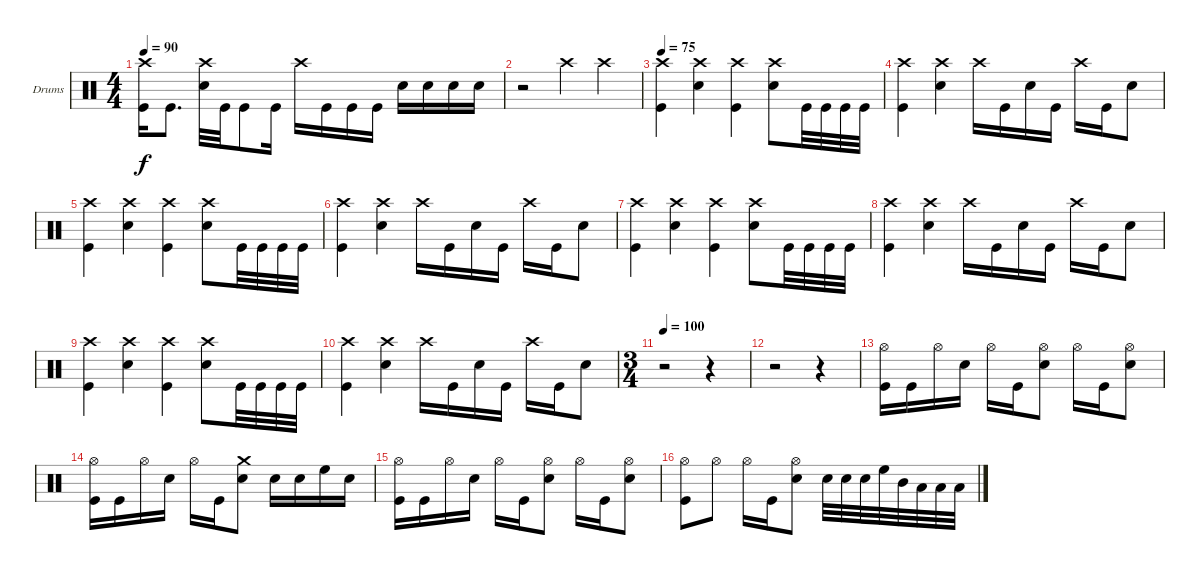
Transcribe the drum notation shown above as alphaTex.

\bracketExtendMode groupsimilarinstruments
\firstSystemTrackNameOrientation horizontal
\otherSystemsTrackNameOrientation horizontal
\track ("Emile Bardou" "Drums") {instrument percussion}
\staff {score}
\articulation defaults
\ts (4 4)
\tempo 90
\clef neutral
\scale
0.333333
\ks c
("Kick (hit)" "Crash high (hit)").16{dy f} "Kick (hit)".8{d} ("Snare (hit) 2" "Crash high (hit)").32 "Kick (hit)".32 "Kick (hit)".8 "Kick (hit)".16 "Crash high (hit)".16 "Kick (hit)".16 "Kick (hit)".16 "Kick (hit)".16 "Snare (hit) 2".16 "Snare (hit) 2".16 "Snare (hit) 2".16 "Snare (hit) 2".16 |
\scale
0.333333 r.2 "Crash high (hit)".4 "Crash high (hit)".4 |
\tempo 75
\scale
0.333333 ("Crash high (hit)" "Kick (hit)").4 ("Crash high (hit)" "Snare (hit) 2").4 ("Crash high (hit)" "Kick (hit)").4 ("Crash high (hit)" "Snare (hit) 2").8 "Kick (hit)".32 "Kick (hit)".32 "Kick (hit)".32 "Kick (hit)".32 |
\scale
0.333333 ("Crash high (hit)" "Kick (hit)").4 ("Crash high (hit)" "Snare (hit) 2").4 "Crash high (hit)".16 "Kick (hit)".16 "Snare (hit) 2".16 "Kick (hit)".16 "Crash high (hit)".16 "Kick (hit)".16 "Snare (hit) 2".8 |
\scale
0.333333 ("Crash high (hit)" "Kick (hit)").4 ("Crash high (hit)" "Snare (hit) 2").4 ("Crash high (hit)" "Kick (hit)").4 ("Crash high (hit)" "Snare (hit) 2").8 "Kick (hit)".32 "Kick (hit)".32 "Kick (hit)".32 "Kick (hit)".32 |
\scale
0.333333 ("Crash high (hit)" "Kick (hit)").4 ("Crash high (hit)" "Snare (hit) 2").4 "Crash high (hit)".16 "Kick (hit)".16 "Snare (hit) 2".16 "Kick (hit)".16 "Crash high (hit)".16 "Kick (hit)".16 "Snare (hit) 2".8 |
\scale
0.333333 ("Crash high (hit)" "Kick (hit)").4 ("Crash high (hit)" "Snare (hit) 2").4 ("Crash high (hit)" "Kick (hit)").4 ("Crash high (hit)" "Snare (hit) 2").8 "Kick (hit)".32 "Kick (hit)".32 "Kick (hit)".32 "Kick (hit)".32 |
\scale
0.333333 ("Crash high (hit)" "Kick (hit)").4 ("Crash high (hit)" "Snare (hit) 2").4 "Crash high (hit)".16 "Kick (hit)".16 "Snare (hit) 2".16 "Kick (hit)".16 "Crash high (hit)".16 "Kick (hit)".16 "Snare (hit) 2".8 |
\scale
0.333333 ("Crash high (hit)" "Kick (hit)").4 ("Crash high (hit)" "Snare (hit) 2").4 ("Crash high (hit)" "Kick (hit)").4 ("Crash high (hit)" "Snare (hit) 2").8 "Kick (hit)".32 "Kick (hit)".32 "Kick (hit)".32 "Kick (hit)".32 |
\scale
0.333333 ("Crash high (hit)" "Kick (hit)").4 ("Crash high (hit)" "Snare (hit) 2").4 "Crash high (hit)".16 "Kick (hit)".16 "Snare (hit) 2".16 "Kick (hit)".16 "Crash high (hit)".16 "Kick (hit)".16 "Snare (hit) 2".8 |
\ts (3 4)
\tempo 100
\scale
0.474178 r.2 r.4 |
\scale
0.262911 r.2 r.4 |
\scale
0.262911 ("Hi-Hat (open)" "Kick (hit)").16 "Kick (hit)".16 "Hi-Hat (open)".16 "Snare (hit) 2".16 "Hi-Hat (open)".16 "Kick (hit)".16 ("Hi-Hat (open)" "Snare (hit) 2").8 "Hi-Hat (open)".16 "Kick (hit)".16 ("Hi-Hat (open)" "Snare (hit) 2").8 |
\scale
0.333333 ("Hi-Hat (open)" "Kick (hit)").16 "Kick (hit)".16 "Hi-Hat (open)".16 "Snare (hit) 2".16 "Hi-Hat (open)".16 "Kick (hit)".16 ("Crash medium (hit)" "Snare (hit) 2").8 "Snare (hit) 2".16 "Snare (hit) 2".16 "High Floor Tom (hit)".16 "Snare (hit) 2".16 |
\scale
0.333333 ("Hi-Hat (open)" "Kick (hit)").16 "Kick (hit)".16 "Hi-Hat (open)".16 "Snare (hit) 2".16 "Hi-Hat (open)".16 "Kick (hit)".16 ("Hi-Hat (open)" "Snare (hit) 2").8 "Hi-Hat (open)".16 "Kick (hit)".16 ("Hi-Hat (open)" "Snare (hit) 2").8 |
\scale
0.333333 ("Hi-Hat (open)" "Kick (hit)").8 "Hi-Hat (open)".8 "Hi-Hat (open)".16 "Kick (hit)".16 ("Hi-Hat (open)" "Snare (hit) 2").8 "Snare (hit) 2".32 "Snare (hit) 2".32 "Snare (hit) 2".32 "High Floor Tom (hit)".32 "Mid Tom (hit)".32 "Low Tom (hit)".32 "Low Tom (hit)".32 "Low Tom (hit)".32
